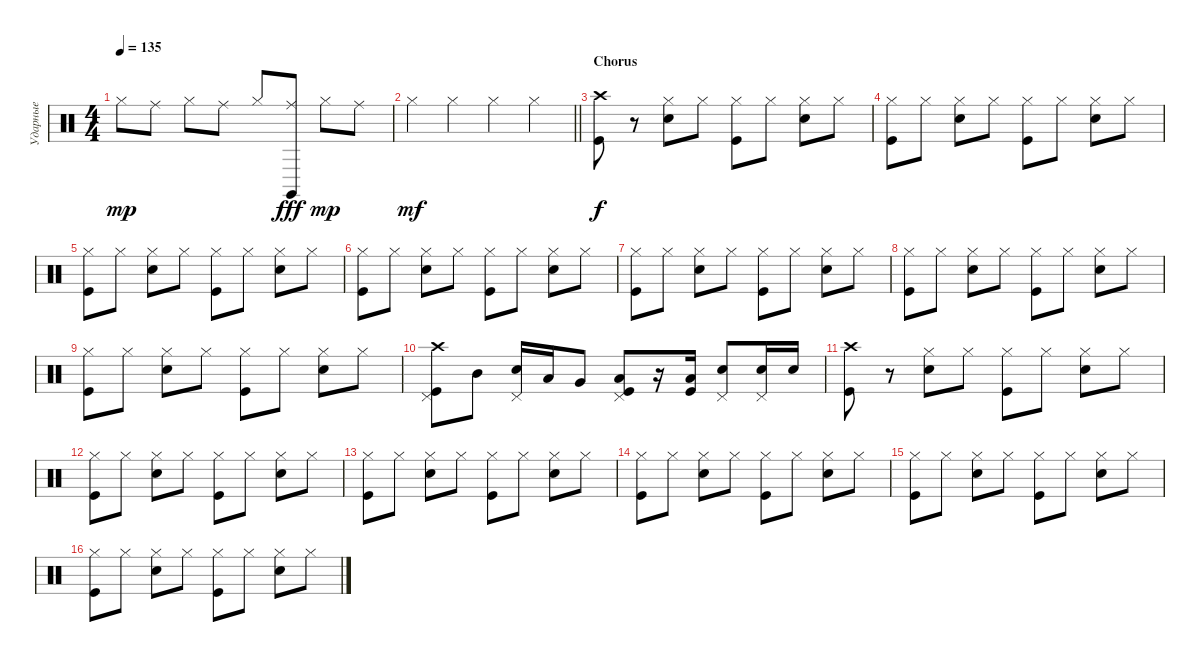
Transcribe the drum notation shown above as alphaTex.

\track ("Ударные" "Ударные") {instrument percussion}
\staff {score}
\articulation defaults
\ts (4 4)
\tempo 135
\clef neutral
\ks c "Hi-Hat (closed)".8{dy mp} "Ride (middle)".8 "Hi-Hat (closed)".8 "Ride (middle)".8 "Hi-Hat (closed)".8
("Ride (middle)" "Claves (hit)").8{dy fff} "Hi-Hat (closed)".8{dy mp} "Ride (middle)".8 |
\barLineRight lightlight "Hi-Hat (closed)".4{dy mf} "Hi-Hat (closed)".4 "Hi-Hat (closed)".4 "Hi-Hat (closed)".4
|
\section ("" "Chorus")
("Crash high (hit)" "Kick (hit)").8{dy f} r.8 ("Hi-Hat (closed)" "Snare (hit) 2").8 "Hi-Hat (closed)".8 ("Hi-Hat (closed)" "Kick (hit)").8 "Hi-Hat (closed)".8 ("Hi-Hat (closed)" "Snare (hit) 2").8 "Hi-Hat (closed)".8 |
("Hi-Hat (closed)" "Kick (hit)").8 "Hi-Hat (closed)".8 ("Hi-Hat (closed)" "Snare (hit) 2").8 "Hi-Hat (closed)".8 ("Hi-Hat (closed)" "Kick (hit)").8 "Hi-Hat (closed)".8 ("Hi-Hat (closed)" "Snare (hit) 2").8 "Hi-Hat (closed)".8 |
("Hi-Hat (closed)" "Kick (hit)").8 "Hi-Hat (closed)".8 ("Hi-Hat (closed)" "Snare (hit) 2").8 "Hi-Hat (closed)".8 ("Hi-Hat (closed)" "Kick (hit)").8 "Hi-Hat (closed)".8 ("Hi-Hat (closed)" "Snare (hit) 2").8 "Hi-Hat (closed)".8 |
("Hi-Hat (closed)" "Kick (hit)").8 "Hi-Hat (closed)".8 ("Hi-Hat (closed)" "Snare (hit) 2").8 "Hi-Hat (closed)".8 ("Hi-Hat (closed)" "Kick (hit)").8 "Hi-Hat (closed)".8 ("Hi-Hat (closed)" "Snare (hit) 2").8 "Hi-Hat (closed)".8 |
("Hi-Hat (closed)" "Kick (hit)").8 "Hi-Hat (closed)".8 ("Hi-Hat (closed)" "Snare (hit) 2").8 "Hi-Hat (closed)".8 ("Hi-Hat (closed)" "Kick (hit)").8 "Hi-Hat (closed)".8 ("Hi-Hat (closed)" "Snare (hit) 2").8 "Hi-Hat (closed)".8 |
("Hi-Hat (closed)" "Kick (hit)").8 "Hi-Hat (closed)".8 ("Hi-Hat (closed)" "Snare (hit) 2").8 "Hi-Hat (closed)".8 ("Hi-Hat (closed)" "Kick (hit)").8 "Hi-Hat (closed)".8 ("Hi-Hat (closed)" "Snare (hit) 2").8 "Hi-Hat (closed)".8 |
("Hi-Hat (closed)" "Kick (hit)").8 "Hi-Hat (closed)".8 ("Hi-Hat (closed)" "Snare (hit) 2").8 "Hi-Hat (closed)".8 ("Hi-Hat (closed)" "Kick (hit)").8 "Hi-Hat (closed)".8 ("Hi-Hat (closed)" "Snare (hit) 2").8 "Hi-Hat (closed)".8 |
("Kick (hit)" "Crash high (hit)" "Pedal Hi-Hat (hit)").8 "Mid Tom (hit)".8 ("Pedal Hi-Hat (hit)" "Snare (hit) 2").16 "Low Tom (hit)".16 "Very Low Tom (hit)".8 ("Low Floor Tom (hit)" "Kick (hit)" "Pedal Hi-Hat (hit)").8 r.16 ("Low Floor Tom (hit)" "Kick (hit)").16 ("Snare (hit) 2" "Pedal Hi-Hat (hit)").8 ("Snare (hit) 2" "Pedal Hi-Hat (hit)").16 "Snare (hit) 2".16 |
("Crash high (hit)" "Kick (hit)").8 r.8 ("Hi-Hat (closed)" "Snare (hit) 2").8 "Hi-Hat (closed)".8 ("Hi-Hat (closed)" "Kick (hit)").8 "Hi-Hat (closed)".8 ("Hi-Hat (closed)" "Snare (hit) 2").8 "Hi-Hat (closed)".8 |
("Hi-Hat (closed)" "Kick (hit)").8 "Hi-Hat (closed)".8 ("Hi-Hat (closed)" "Snare (hit) 2").8 "Hi-Hat (closed)".8 ("Hi-Hat (closed)" "Kick (hit)").8 "Hi-Hat (closed)".8 ("Hi-Hat (closed)" "Snare (hit) 2").8 "Hi-Hat (closed)".8 |
("Hi-Hat (closed)" "Kick (hit)").8 "Hi-Hat (closed)".8 ("Hi-Hat (closed)" "Snare (hit) 2").8 "Hi-Hat (closed)".8 ("Hi-Hat (closed)" "Kick (hit)").8 "Hi-Hat (closed)".8 ("Hi-Hat (closed)" "Snare (hit) 2").8 "Hi-Hat (closed)".8 |
("Hi-Hat (closed)" "Kick (hit)").8 "Hi-Hat (closed)".8 ("Hi-Hat (closed)" "Snare (hit) 2").8 "Hi-Hat (closed)".8 ("Hi-Hat (closed)" "Kick (hit)").8 "Hi-Hat (closed)".8 ("Hi-Hat (closed)" "Snare (hit) 2").8 "Hi-Hat (closed)".8 |
("Hi-Hat (closed)" "Kick (hit)").8 "Hi-Hat (closed)".8 ("Hi-Hat (closed)" "Snare (hit) 2").8 "Hi-Hat (closed)".8 ("Hi-Hat (closed)" "Kick (hit)").8 "Hi-Hat (closed)".8 ("Hi-Hat (closed)" "Snare (hit) 2").8 "Hi-Hat (closed)".8 |
("Hi-Hat (closed)" "Kick (hit)").8 "Hi-Hat (closed)".8 ("Hi-Hat (closed)" "Snare (hit) 2").8 "Hi-Hat (closed)".8 ("Hi-Hat (closed)" "Kick (hit)").8 "Hi-Hat (closed)".8 ("Hi-Hat (closed)" "Snare (hit) 2").8 "Hi-Hat (closed)".8
